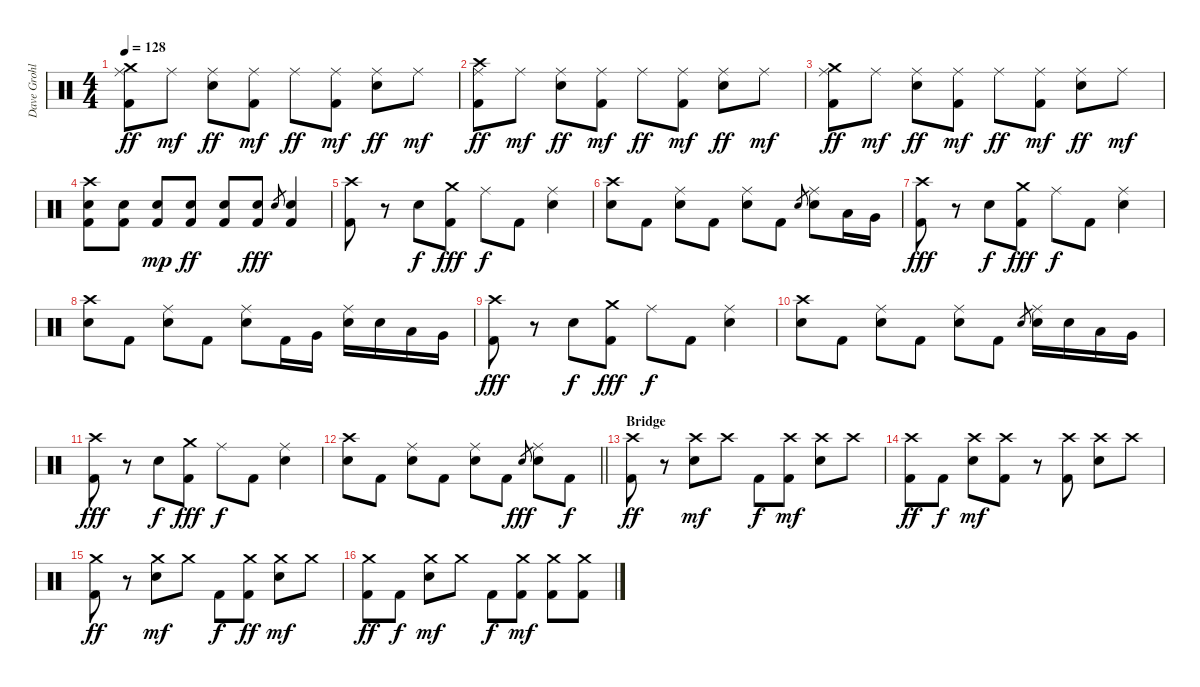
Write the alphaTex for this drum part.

\track ("Dave Grohl" "Dave Grohl") {instrument percussion}
\staff {score}
\articulation defaults
\ts (4 4)
\tempo 128
\clef neutral
\ks c
("Crash medium (hit)" "Ride (middle)" "Kick (hit) 2").8{dy ff} "Ride (middle)".8{dy mf} ("Ride (middle)" "Snare (hit) 2").8{dy ff} ("Ride (middle)" "Kick (hit) 2").8{dy mf} "Ride (middle)".8{dy ff} ("Ride (middle)" "Kick (hit) 2").8{dy mf} ("Ride (middle)" "Snare (hit) 2").8{dy ff} "Ride (middle)".8{dy mf} |
("Crash high (hit)" "Ride (middle)" "Kick (hit) 2").8{dy ff} "Ride (middle)".8{dy mf} ("Ride (middle)" "Snare (hit) 2").8{dy ff} ("Ride (middle)" "Kick (hit) 2").8{dy mf} "Ride (middle)".8{dy ff} ("Ride (middle)" "Kick (hit) 2").8{dy mf} ("Ride (middle)" "Snare (hit) 2").8{dy ff} "Ride (middle)".8{dy mf} |
("Crash medium (hit)" "Ride (middle)" "Kick (hit) 2").8{dy ff} "Ride (middle)".8{dy mf} ("Ride (middle)" "Snare (hit) 2").8{dy ff} ("Ride (middle)" "Kick (hit) 2").8{dy mf} "Ride (middle)".8{dy ff} ("Ride (middle)" "Kick (hit) 2").8{dy mf} ("Ride (middle)" "Snare (hit) 2").8{dy ff} "Ride (middle)".8{dy mf} |
("Crash high (hit)" "Snare (hit) 2" "Kick (hit) 2").8 ("Snare (hit) 2" "Kick (hit) 2").8 ("Snare (hit) 2" "Kick (hit) 2").8{dy mp} ("Snare (hit) 2" "Kick (hit) 2").8{dy ff} ("Snare (hit) 2" "Kick (hit) 2").8 ("Snare (hit) 2" "Kick (hit) 2").8{dy fff} "Snare (hit) 2".8{gr} ("Snare (hit) 2" "Kick (hit) 2").4 |
("Crash high (hit)" "Kick (hit) 2").8 r.8 "Snare (hit) 2".8{dy f} ("Crash medium (hit)" "Kick (hit) 2").8{dy fff} "Ride (middle)".8{dy f} "Kick (hit) 2".8 ("Ride (middle)" "Snare (hit) 2").4 |
("Crash high (hit)" "Snare (hit) 2").8 "Kick (hit) 2".8 ("Ride (middle)" "Snare (hit) 2").8 "Kick (hit) 2".8 ("Ride (middle)" "Snare (hit) 2").8 "Kick (hit) 2".8 "Snare (hit) 2".8{gr} ("Ride (middle)" "Snare (hit) 2").8 "Low Tom (hit)".16 "Very Low Tom (hit)".16 |
("Crash high (hit)" "Kick (hit) 2").8{dy fff} r.8 "Snare (hit) 2".8{dy f} ("Crash medium (hit)" "Kick (hit) 2").8{dy fff} "Ride (middle)".8{dy f} "Kick (hit) 2".8 ("Ride (middle)" "Snare (hit) 2").4 |
("Crash high (hit)" "Snare (hit) 2").8 "Kick (hit) 2".8 ("Ride (middle)" "Snare (hit) 2").8 "Kick (hit) 2".8 ("Ride (middle)" "Snare (hit) 2").8 "Kick (hit) 2".16 "Very Low Tom (hit)".16 ("Ride (middle)" "Snare (hit) 2").16 "Snare (hit) 2".16 "Low Tom (hit)".16 "Very Low Tom (hit)".16 |
("Crash high (hit)" "Kick (hit) 2").8{dy fff} r.8 "Snare (hit) 2".8{dy f} ("Crash medium (hit)" "Kick (hit) 2").8{dy fff} "Ride (middle)".8{dy f} "Kick (hit) 2".8 ("Ride (middle)" "Snare (hit) 2").4 |
("Crash high (hit)" "Snare (hit) 2").8 "Kick (hit) 2".8 ("Ride (middle)" "Snare (hit) 2").8 "Kick (hit) 2".8 ("Ride (middle)" "Snare (hit) 2").8 "Kick (hit) 2".8 "Snare (hit) 2".8{gr} ("Ride (middle)" "Snare (hit) 2").16 "Snare (hit) 2".16 "Low Tom (hit)".16 "Very Low Tom (hit)".16 |
("Crash high (hit)" "Kick (hit) 2").8{dy fff} r.8 "Snare (hit) 2".8{dy f} ("Crash medium (hit)" "Kick (hit) 2").8{dy fff} "Ride (middle)".8{dy f} "Kick (hit) 2".8 ("Ride (middle)" "Snare (hit) 2").4 |
\barLineRight lightlight
("Crash high (hit)" "Snare (hit) 2").8 "Kick (hit) 2".8 ("Ride (middle)" "Snare (hit) 2").8 "Kick (hit) 2".8 ("Ride (middle)" "Snare (hit) 2").8 "Kick (hit) 2".8 "Snare (hit) 2".8{gr dy fff} ("Ride (middle)" "Snare (hit) 2").8 "Kick (hit) 2".8{dy f} |
\section ("" "Bridge")
("Crash high (hit)" "Kick (hit) 2").8{dy ff} r.8 ("Crash high (hit)" "Snare (hit) 2").8{dy mf} "Crash high (hit)".8 "Kick (hit) 2".8{dy f} ("Crash high (hit)" "Kick (hit) 2").8{dy mf} ("Crash high (hit)" "Snare (hit) 2").8 "Crash high (hit)".8 |
("Crash high (hit)" "Kick (hit) 2").8{dy ff} "Kick (hit) 2".8{dy f} ("Crash high (hit)" "Snare (hit) 2").8{dy mf} ("Crash high (hit)" "Kick (hit) 2").8 r.8 ("Crash high (hit)" "Kick (hit) 2").8 ("Crash high (hit)" "Snare (hit) 2").8 "Crash high (hit)".8 |
("Crash medium (hit)" "Kick (hit) 2").8{dy ff} r.8 ("Crash medium (hit)" "Snare (hit) 2").8{dy mf} "Crash medium (hit)".8 "Kick (hit) 2".8{dy f} ("Crash medium (hit)" "Kick (hit) 2").8{dy ff} ("Crash medium (hit)" "Snare (hit) 2").8{dy mf} "Crash medium (hit)".8 |
("Crash medium (hit)" "Kick (hit) 2").8{dy ff} "Kick (hit) 2".8{dy f} ("Crash medium (hit)" "Snare (hit) 2").8{dy mf} "Crash medium (hit)".8 "Kick (hit) 2".8{dy f} ("Crash medium (hit)" "Kick (hit) 2").8{dy mf} ("Crash medium (hit)" "Kick (hit) 2").8 ("Crash medium (hit)" "Kick (hit) 2").8
